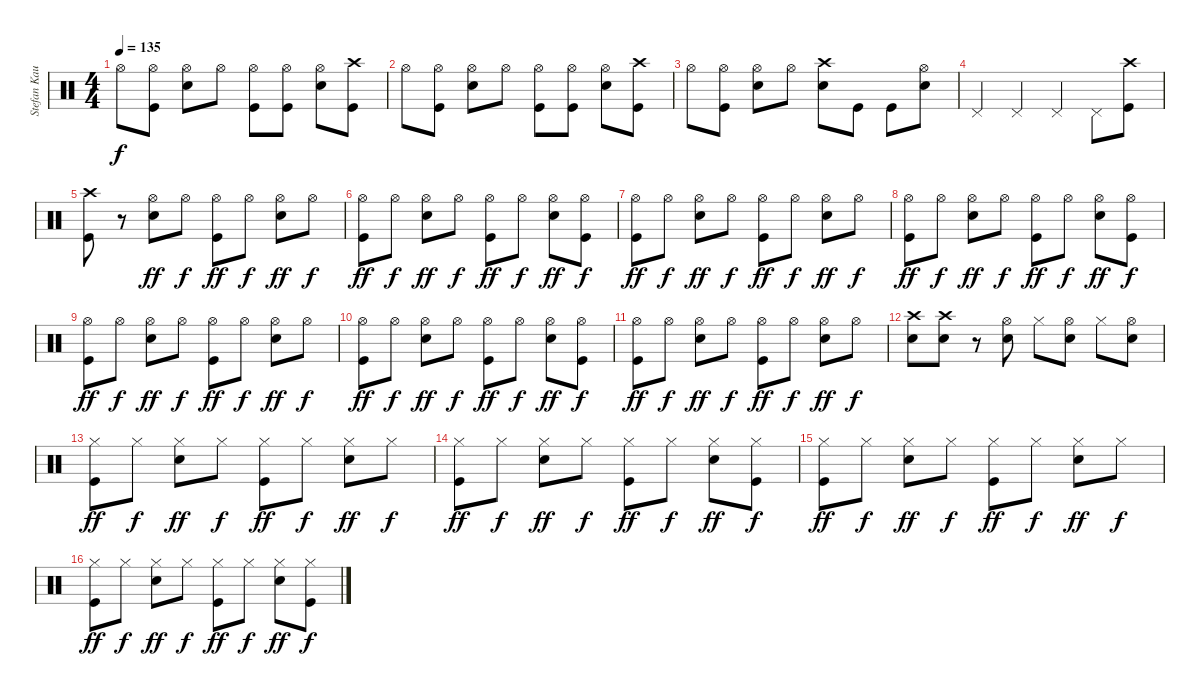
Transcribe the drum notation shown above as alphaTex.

\track ("Stefan Kaufmann" "Stefan Kau") {instrument percussion}
\staff {score}
\articulation defaults
\ts (4 4)
\tempo 135
\clef neutral
\ks c "Hi-Hat (open)".8{dy f}
("Hi-Hat (open)" "Kick (hit)").8 ("Hi-Hat (open)" "Snare (hit) 2").8 "Hi-Hat (open)".8 ("Hi-Hat (open)" "Kick (hit)").8 ("Hi-Hat (open)" "Kick (hit)").8 ("Hi-Hat (open)" "Snare (hit) 2").8 ("Crash high (hit)" "Kick (hit)").8 |
"Hi-Hat (open)".8 ("Hi-Hat (open)" "Kick (hit)").8 ("Hi-Hat (open)" "Snare (hit) 2").8 "Hi-Hat (open)".8 ("Hi-Hat (open)" "Kick (hit)").8 ("Hi-Hat (open)" "Kick (hit)").8 ("Hi-Hat (open)" "Snare (hit) 2").8 ("Crash high (hit)" "Kick (hit)").8 |
"Hi-Hat (open)".8 ("Hi-Hat (open)" "Kick (hit)").8 ("Hi-Hat (open)" "Snare (hit) 2").8 "Hi-Hat (open)".8 ("Crash high (hit)" "Snare (hit) 2").8 "Kick (hit)".8 "Kick (hit)".8 ("Hi-Hat (open)" "Snare (hit) 2").8 |
"Pedal Hi-Hat (hit)".4 "Pedal Hi-Hat (hit)".4 "Pedal Hi-Hat (hit)".4 "Pedal Hi-Hat (hit)".8 ("Crash high (hit)" "Kick (hit)").8 |
("Crash high (hit)" "Kick (hit)").8 r.8 ("Hi-Hat (open)" "Snare (hit) 2").8{dy ff} "Hi-Hat (open)".8{dy f} ("Hi-Hat (open)" "Kick (hit)").8{dy ff} "Hi-Hat (open)".8{dy f} ("Hi-Hat (open)" "Snare (hit) 2").8{dy ff} "Hi-Hat (open)".8{dy f} |
("Hi-Hat (open)" "Kick (hit)").8{dy ff} "Hi-Hat (open)".8{dy f} ("Hi-Hat (open)" "Snare (hit) 2").8{dy ff} "Hi-Hat (open)".8{dy f} ("Hi-Hat (open)" "Kick (hit)").8{dy ff} "Hi-Hat (open)".8{dy f} ("Hi-Hat (open)" "Snare (hit) 2").8{dy ff} ("Hi-Hat (open)" "Kick (hit)").8{dy f} |
("Hi-Hat (open)" "Kick (hit)").8{dy ff} "Hi-Hat (open)".8{dy f} ("Hi-Hat (open)" "Snare (hit) 2").8{dy ff} "Hi-Hat (open)".8{dy f} ("Hi-Hat (open)" "Kick (hit)").8{dy ff} "Hi-Hat (open)".8{dy f} ("Hi-Hat (open)" "Snare (hit) 2").8{dy ff} "Hi-Hat (open)".8{dy f} |
("Hi-Hat (open)" "Kick (hit)").8{dy ff} "Hi-Hat (open)".8{dy f} ("Hi-Hat (open)" "Snare (hit) 2").8{dy ff} "Hi-Hat (open)".8{dy f} ("Hi-Hat (open)" "Kick (hit)").8{dy ff} "Hi-Hat (open)".8{dy f} ("Hi-Hat (open)" "Snare (hit) 2").8{dy ff} ("Hi-Hat (open)" "Kick (hit)").8{dy f} |
("Hi-Hat (open)" "Kick (hit)").8{dy ff} "Hi-Hat (open)".8{dy f} ("Hi-Hat (open)" "Snare (hit) 2").8{dy ff} "Hi-Hat (open)".8{dy f} ("Hi-Hat (open)" "Kick (hit)").8{dy ff} "Hi-Hat (open)".8{dy f} ("Hi-Hat (open)" "Snare (hit) 2").8{dy ff} "Hi-Hat (open)".8{dy f} |
("Hi-Hat (open)" "Kick (hit)").8{dy ff} "Hi-Hat (open)".8{dy f} ("Hi-Hat (open)" "Snare (hit) 2").8{dy ff} "Hi-Hat (open)".8{dy f} ("Hi-Hat (open)" "Kick (hit)").8{dy ff} "Hi-Hat (open)".8{dy f} ("Hi-Hat (open)" "Snare (hit) 2").8{dy ff} ("Hi-Hat (open)" "Kick (hit)").8{dy f} |
("Hi-Hat (open)" "Kick (hit)").8{dy ff} "Hi-Hat (open)".8{dy f} ("Hi-Hat (open)" "Snare (hit) 2").8{dy ff} "Hi-Hat (open)".8{dy f} ("Hi-Hat (open)" "Kick (hit)").8{dy ff} "Hi-Hat (open)".8{dy f} ("Hi-Hat (open)" "Snare (hit) 2").8{dy ff} "Hi-Hat (open)".8{dy f} |
("Crash high (hit)" "Snare (hit) 2").8 ("Crash high (hit)" "Snare (hit) 2").8 r.8 ("Hi-Hat (open)" "Snare (hit) 2").8 "Hi-Hat (closed)".8 ("Hi-Hat (open)" "Snare (hit) 2").8 "Hi-Hat (closed)".8 ("Hi-Hat (open)" "Snare (hit) 2").8 |
("Hi-Hat (closed)" "Kick (hit)").8{dy ff} "Hi-Hat (closed)".8{dy f} ("Hi-Hat (closed)" "Snare (hit) 2").8{dy ff} "Hi-Hat (closed)".8{dy f} ("Hi-Hat (closed)" "Kick (hit)").8{dy ff} "Hi-Hat (closed)".8{dy f} ("Hi-Hat (closed)" "Snare (hit) 2").8{dy ff} "Hi-Hat (closed)".8{dy f} |
("Hi-Hat (closed)" "Kick (hit)").8{dy ff} "Hi-Hat (closed)".8{dy f} ("Hi-Hat (closed)" "Snare (hit) 2").8{dy ff} "Hi-Hat (closed)".8{dy f} ("Hi-Hat (closed)" "Kick (hit)").8{dy ff} "Hi-Hat (closed)".8{dy f} ("Hi-Hat (closed)" "Snare (hit) 2").8{dy ff} ("Hi-Hat (closed)" "Kick (hit)").8{dy f} |
("Hi-Hat (closed)" "Kick (hit)").8{dy ff} "Hi-Hat (closed)".8{dy f} ("Hi-Hat (closed)" "Snare (hit) 2").8{dy ff} "Hi-Hat (closed)".8{dy f} ("Hi-Hat (closed)" "Kick (hit)").8{dy ff} "Hi-Hat (closed)".8{dy f} ("Hi-Hat (closed)" "Snare (hit) 2").8{dy ff} "Hi-Hat (closed)".8{dy f} |
("Hi-Hat (closed)" "Kick (hit)").8{dy ff} "Hi-Hat (closed)".8{dy f} ("Hi-Hat (closed)" "Snare (hit) 2").8{dy ff} "Hi-Hat (closed)".8{dy f} ("Hi-Hat (closed)" "Kick (hit)").8{dy ff} "Hi-Hat (closed)".8{dy f} ("Hi-Hat (closed)" "Snare (hit) 2").8{dy ff} ("Hi-Hat (closed)" "Kick (hit)").8{dy f}
